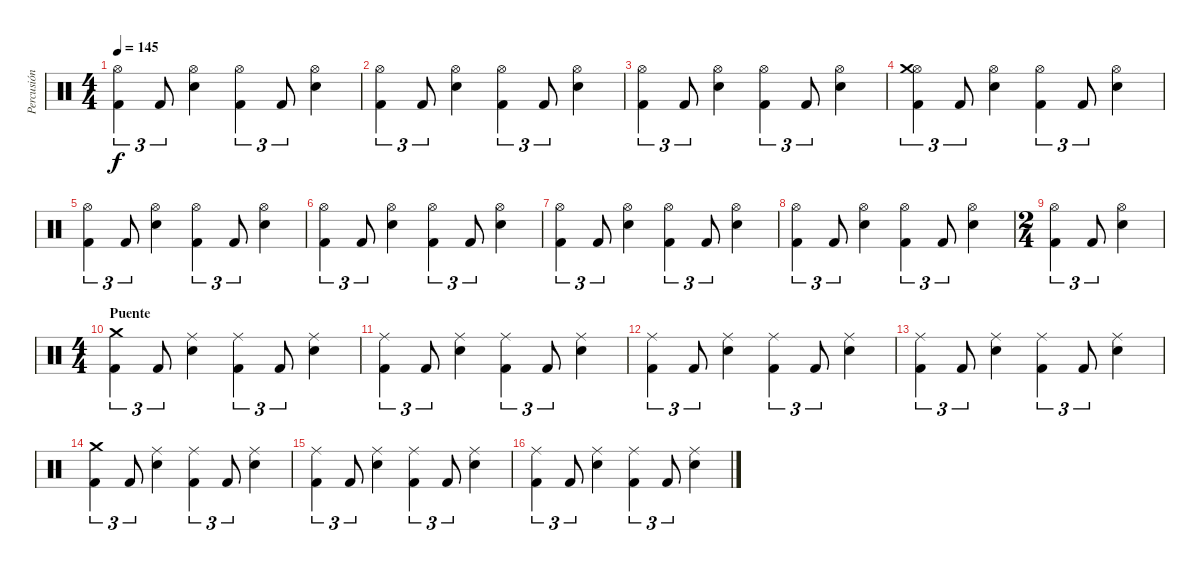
\track ("Percusión" "Percusión") {instrument percussion}
\staff {score}
\articulation defaults
\ts (4 4)
\tempo 145
\clef neutral
\ks c
("Kick (hit) 2" "Hi-Hat (open)").4{tu (3 2) dy f} "Kick (hit) 2".8{tu (3 2)} ("Snare (hit) 2" "Hi-Hat (open)").4 ("Kick (hit) 2" "Hi-Hat (open)").4{tu (3 2)} "Kick (hit) 2".8{tu (3 2)} ("Snare (hit) 2" "Hi-Hat (open)").4 |
("Kick (hit) 2" "Hi-Hat (open)").4{tu (3 2)} "Kick (hit) 2".8{tu (3 2)} ("Snare (hit) 2" "Hi-Hat (open)").4 ("Kick (hit) 2" "Hi-Hat (open)").4{tu (3 2)} "Kick (hit) 2".8{tu (3 2)} ("Snare (hit) 2" "Hi-Hat (open)").4 |
("Kick (hit) 2" "Hi-Hat (open)").4{tu (3 2)} "Kick (hit) 2".8{tu (3 2)} ("Snare (hit) 2" "Hi-Hat (open)").4 ("Kick (hit) 2" "Hi-Hat (open)").4{tu (3 2)} "Kick (hit) 2".8{tu (3 2)} ("Snare (hit) 2" "Hi-Hat (open)").4 |
("Kick (hit) 2" "Hi-Hat (open)" "Crash medium (hit)").4{tu (3 2)} "Kick (hit) 2".8{tu (3 2)} ("Snare (hit) 2" "Hi-Hat (open)").4 ("Kick (hit) 2" "Hi-Hat (open)").4{tu (3 2)} "Kick (hit) 2".8{tu (3 2)} ("Snare (hit) 2" "Hi-Hat (open)").4 |
("Kick (hit) 2" "Hi-Hat (open)").4{tu (3 2)} "Kick (hit) 2".8{tu (3 2)} ("Snare (hit) 2" "Hi-Hat (open)").4 ("Kick (hit) 2" "Hi-Hat (open)").4{tu (3 2)} "Kick (hit) 2".8{tu (3 2)} ("Snare (hit) 2" "Hi-Hat (open)").4 |
("Kick (hit) 2" "Hi-Hat (open)").4{tu (3 2)} "Kick (hit) 2".8{tu (3 2)} ("Snare (hit) 2" "Hi-Hat (open)").4 ("Kick (hit) 2" "Hi-Hat (open)").4{tu (3 2)} "Kick (hit) 2".8{tu (3 2)} ("Snare (hit) 2" "Hi-Hat (open)").4 |
("Kick (hit) 2" "Hi-Hat (open)").4{tu (3 2)} "Kick (hit) 2".8{tu (3 2)} ("Snare (hit) 2" "Hi-Hat (open)").4 ("Kick (hit) 2" "Hi-Hat (open)").4{tu (3 2)} "Kick (hit) 2".8{tu (3 2)} ("Snare (hit) 2" "Hi-Hat (open)").4 |
("Kick (hit) 2" "Hi-Hat (open)").4{tu (3 2)} "Kick (hit) 2".8{tu (3 2)} ("Snare (hit) 2" "Hi-Hat (open)").4 ("Kick (hit) 2" "Hi-Hat (open)").4{tu (3 2)} "Kick (hit) 2".8{tu (3 2)} ("Snare (hit) 2" "Hi-Hat (open)").4 |
\ts (2 4)
("Hi-Hat (open)" "Kick (hit) 2").4{tu (3 2)} "Kick (hit) 2".8{tu (3 2)} ("Snare (hit) 2" "Hi-Hat (open)").4 |
\ts (4 4)
\section ("" "Puente")
("Crash medium (hit)" "Kick (hit) 2").4{tu (3 2)} "Kick (hit) 2".8{tu (3 2)} ("Ride (middle)" "Snare (hit) 2").4 ("Ride (middle)" "Kick (hit) 2").4{tu (3 2)} "Kick (hit) 2".8{tu (3 2)} ("Ride (middle)" "Snare (hit) 2").4 |
("Ride (middle)" "Kick (hit) 2").4{tu (3 2)} "Kick (hit) 2".8{tu (3 2)} ("Ride (middle)" "Snare (hit) 2").4 ("Ride (middle)" "Kick (hit) 2").4{tu (3 2)} "Kick (hit) 2".8{tu (3 2)} ("Ride (middle)" "Snare (hit) 2").4 |
("Ride (middle)" "Kick (hit) 2").4{tu (3 2)} "Kick (hit) 2".8{tu (3 2)} ("Ride (middle)" "Snare (hit) 2").4 ("Ride (middle)" "Kick (hit) 2").4{tu (3 2)} "Kick (hit) 2".8{tu (3 2)} ("Ride (middle)" "Snare (hit) 2").4 |
("Ride (middle)" "Kick (hit) 2").4{tu (3 2)} "Kick (hit) 2".8{tu (3 2)} ("Ride (middle)" "Snare (hit) 2").4 ("Ride (middle)" "Kick (hit) 2").4{tu (3 2)} "Kick (hit) 2".8{tu (3 2)} ("Ride (middle)" "Snare (hit) 2").4 |
("Crash medium (hit)" "Kick (hit) 2").4{tu (3 2)} "Kick (hit) 2".8{tu (3 2)} ("Ride (middle)" "Snare (hit) 2").4 ("Ride (middle)" "Kick (hit) 2").4{tu (3 2)} "Kick (hit) 2".8{tu (3 2)} ("Ride (middle)" "Snare (hit) 2").4 |
("Ride (middle)" "Kick (hit) 2").4{tu (3 2)} "Kick (hit) 2".8{tu (3 2)} ("Ride (middle)" "Snare (hit) 2").4 ("Ride (middle)" "Kick (hit) 2").4{tu (3 2)} "Kick (hit) 2".8{tu (3 2)} ("Ride (middle)" "Snare (hit) 2").4 |
("Ride (middle)" "Kick (hit) 2").4{tu (3 2)} "Kick (hit) 2".8{tu (3 2)} ("Ride (middle)" "Snare (hit) 2").4 ("Ride (middle)" "Kick (hit) 2").4{tu (3 2)} "Kick (hit) 2".8{tu (3 2)} ("Ride (middle)" "Snare (hit) 2").4
